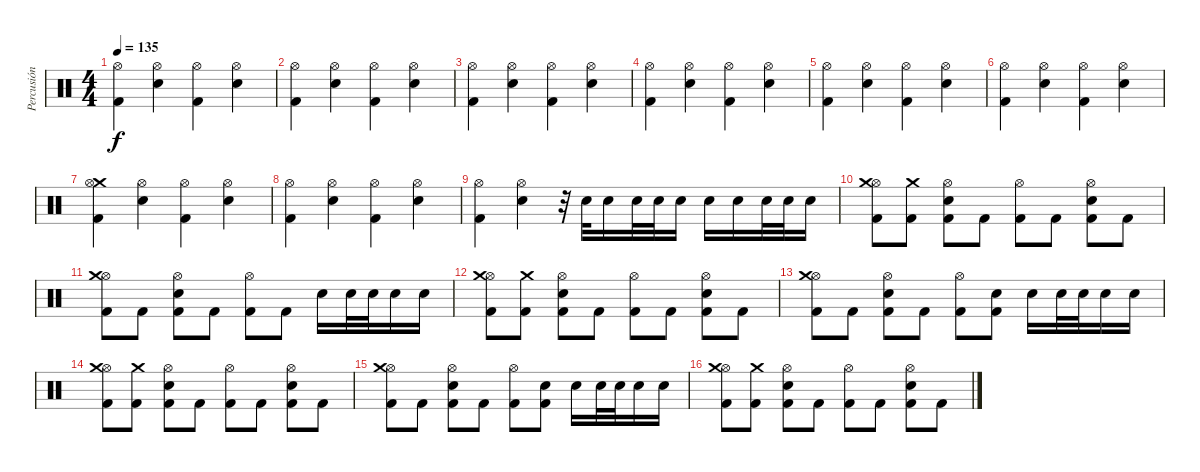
\track ("Percusión" "Percusión") {instrument percussion}
\staff {score}
\articulation defaults
\ts (4 4)
\tempo 135
\clef neutral
\ks c
("Hi-Hat (open)" "Kick (hit) 2").4{dy f} ("Hi-Hat (open)" "Electric Snare (hit)").4 ("Hi-Hat (open)" "Kick (hit) 2").4 ("Hi-Hat (open)" "Electric Snare (hit)").4 |
("Hi-Hat (open)" "Kick (hit) 2").4 ("Hi-Hat (open)" "Electric Snare (hit)").4 ("Hi-Hat (open)" "Kick (hit) 2").4 ("Hi-Hat (open)" "Electric Snare (hit)").4 |
("Hi-Hat (open)" "Kick (hit) 2").4 ("Hi-Hat (open)" "Electric Snare (hit)").4 ("Hi-Hat (open)" "Kick (hit) 2").4 ("Hi-Hat (open)" "Electric Snare (hit)").4 |
("Hi-Hat (open)" "Kick (hit) 2").4 ("Hi-Hat (open)" "Electric Snare (hit)").4 ("Hi-Hat (open)" "Kick (hit) 2").4 ("Hi-Hat (open)" "Electric Snare (hit)").4 |
("Hi-Hat (open)" "Kick (hit) 2").4 ("Hi-Hat (open)" "Electric Snare (hit)").4 ("Hi-Hat (open)" "Kick (hit) 2").4 ("Hi-Hat (open)" "Electric Snare (hit)").4 |
("Hi-Hat (open)" "Kick (hit) 2").4 ("Hi-Hat (open)" "Electric Snare (hit)").4 ("Hi-Hat (open)" "Kick (hit) 2").4 ("Hi-Hat (open)" "Electric Snare (hit)").4 |
("Crash medium (hit)" "Hi-Hat (open)" "Kick (hit) 2").4 ("Hi-Hat (open)" "Electric Snare (hit)").4 ("Hi-Hat (open)" "Kick (hit) 2").4 ("Hi-Hat (open)" "Electric Snare (hit)").4 |
("Hi-Hat (open)" "Kick (hit) 2").4 ("Hi-Hat (open)" "Electric Snare (hit)").4 ("Hi-Hat (open)" "Kick (hit) 2").4 ("Hi-Hat (open)" "Electric Snare (hit)").4 |
("Hi-Hat (open)" "Kick (hit) 2").4 ("Hi-Hat (open)" "Electric Snare (hit)").4 r.32 "Snare (hit) 2".32 "Snare (hit) 2".16 "Snare (hit) 2".32 "Snare (hit) 2".32 "Snare (hit) 2".16 "Snare (hit) 2".16 "Snare (hit) 2".16 "Snare (hit) 2".32 "Snare (hit) 2".32 "Snare (hit) 2".16 |
("Hi-Hat (open)" "Kick (hit) 2" "Crash medium (hit)").8 ("Kick (hit) 2" "Crash medium (hit)").8 ("Hi-Hat (open)" "Electric Snare (hit)" "Kick (hit) 2").8 "Kick (hit) 2".8 ("Hi-Hat (open)" "Kick (hit) 2").8 "Kick (hit) 2".8 ("Hi-Hat (open)" "Electric Snare (hit)" "Kick (hit) 2").8 "Kick (hit) 2".8 |
("Hi-Hat (open)" "Kick (hit) 2" "Crash medium (hit)").8 "Kick (hit) 2".8 ("Hi-Hat (open)" "Electric Snare (hit)" "Kick (hit) 2").8 "Kick (hit) 2".8 ("Hi-Hat (open)" "Kick (hit) 2").8 "Kick (hit) 2".8 "Electric Snare (hit)".16 "Electric Snare (hit)".32 "Electric Snare (hit)".32 "Electric Snare (hit)".16 "Electric Snare (hit)".16 |
("Hi-Hat (open)" "Kick (hit) 2" "Crash medium (hit)").8 ("Kick (hit) 2" "Crash medium (hit)").8 ("Hi-Hat (open)" "Electric Snare (hit)" "Kick (hit) 2").8 "Kick (hit) 2".8 ("Hi-Hat (open)" "Kick (hit) 2").8 "Kick (hit) 2".8 ("Hi-Hat (open)" "Electric Snare (hit)" "Kick (hit) 2").8 "Kick (hit) 2".8 |
("Hi-Hat (open)" "Kick (hit) 2" "Crash medium (hit)").8 "Kick (hit) 2".8 ("Hi-Hat (open)" "Electric Snare (hit)" "Kick (hit) 2").8 "Kick (hit) 2".8 ("Hi-Hat (open)" "Kick (hit) 2").8 ("Kick (hit) 2" "Electric Snare (hit)").8 "Electric Snare (hit)".16 "Electric Snare (hit)".32 "Electric Snare (hit)".32 "Electric Snare (hit)".16 "Electric Snare (hit)".16 |
("Hi-Hat (open)" "Kick (hit) 2" "Crash medium (hit)").8 ("Kick (hit) 2" "Crash medium (hit)").8 ("Hi-Hat (open)" "Electric Snare (hit)" "Kick (hit) 2").8 "Kick (hit) 2".8 ("Hi-Hat (open)" "Kick (hit) 2").8 "Kick (hit) 2".8 ("Hi-Hat (open)" "Electric Snare (hit)" "Kick (hit) 2").8 "Kick (hit) 2".8 |
("Hi-Hat (open)" "Kick (hit) 2" "Crash medium (hit)").8 "Kick (hit) 2".8 ("Hi-Hat (open)" "Electric Snare (hit)" "Kick (hit) 2").8 "Kick (hit) 2".8 ("Hi-Hat (open)" "Kick (hit) 2").8 ("Kick (hit) 2" "Electric Snare (hit)").8 "Electric Snare (hit)".16 "Electric Snare (hit)".32 "Electric Snare (hit)".32 "Electric Snare (hit)".16 "Electric Snare (hit)".16 |
("Hi-Hat (open)" "Kick (hit) 2" "Crash medium (hit)").8 ("Kick (hit) 2" "Crash medium (hit)").8 ("Hi-Hat (open)" "Electric Snare (hit)" "Kick (hit) 2").8 "Kick (hit) 2".8 ("Hi-Hat (open)" "Kick (hit) 2").8 "Kick (hit) 2".8 ("Hi-Hat (open)" "Electric Snare (hit)" "Kick (hit) 2").8 "Kick (hit) 2".8
